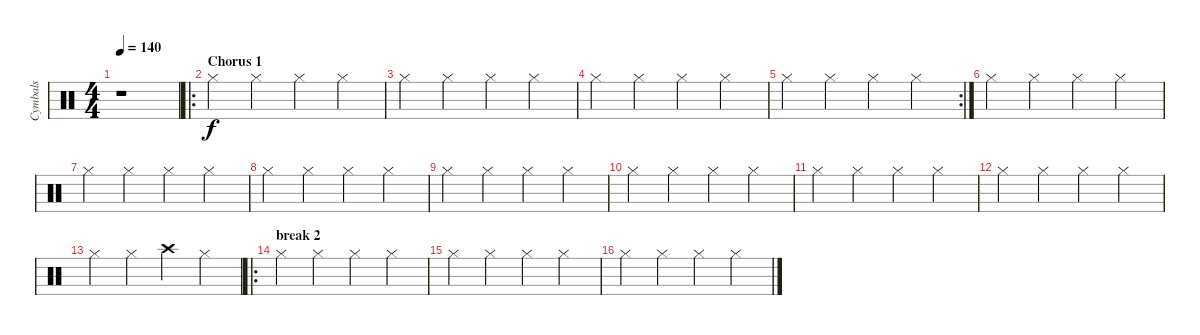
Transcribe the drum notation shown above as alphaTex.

\track ("Cymbals" "Cymbals") {instrument percussion}
\staff {score}
\articulation defaults
\ts (4 4)
\tempo 140
\clef neutral
\ks c
r.1{dy f} |
\ro
\section ("" "Chorus 1")
"Hi-Hat (closed)".4 "Hi-Hat (closed)".4 "Hi-Hat (closed)".4 "Hi-Hat (closed)".4 |
"Hi-Hat (closed)".4 "Hi-Hat (closed)".4 "Hi-Hat (closed)".4 "Hi-Hat (closed)".4 |
"Hi-Hat (closed)".4 "Hi-Hat (closed)".4 "Hi-Hat (closed)".4 "Hi-Hat (closed)".4 |
\rc 2 "Hi-Hat (closed)".4 "Hi-Hat (closed)".4 "Hi-Hat (closed)".4 "Hi-Hat (closed)".4
|
"Hi-Hat (closed)".4 "Hi-Hat (closed)".4 "Hi-Hat (closed)".4 "Hi-Hat (closed)".4 |
"Hi-Hat (closed)".4 "Hi-Hat (closed)".4 "Hi-Hat (closed)".4 "Hi-Hat (closed)".4 |
"Hi-Hat (closed)".4 "Hi-Hat (closed)".4 "Hi-Hat (closed)".4 "Hi-Hat (closed)".4 |
"Hi-Hat (closed)".4 "Hi-Hat (closed)".4 "Hi-Hat (closed)".4 "Hi-Hat (closed)".4 |
"Hi-Hat (closed)".4 "Hi-Hat (closed)".4 "Hi-Hat (closed)".4 "Hi-Hat (closed)".4 |
"Hi-Hat (closed)".4 "Hi-Hat (closed)".4 "Hi-Hat (closed)".4 "Hi-Hat (closed)".4 |
"Hi-Hat (closed)".4 "Hi-Hat (closed)".4 "Hi-Hat (closed)".4 "Hi-Hat (closed)".4 |
"Hi-Hat (closed)".4 "Hi-Hat (closed)".4 "Crash high (hit)".4 "Hi-Hat (closed)".4 |
\ro
\section ("" "break 2")
"Hi-Hat (closed)".4 "Hi-Hat (closed)".4 "Hi-Hat (closed)".4 "Hi-Hat (closed)".4 |
"Hi-Hat (closed)".4 "Hi-Hat (closed)".4 "Hi-Hat (closed)".4 "Hi-Hat (closed)".4 |
"Hi-Hat (closed)".4 "Hi-Hat (closed)".4 "Hi-Hat (closed)".4 "Hi-Hat (closed)".4
